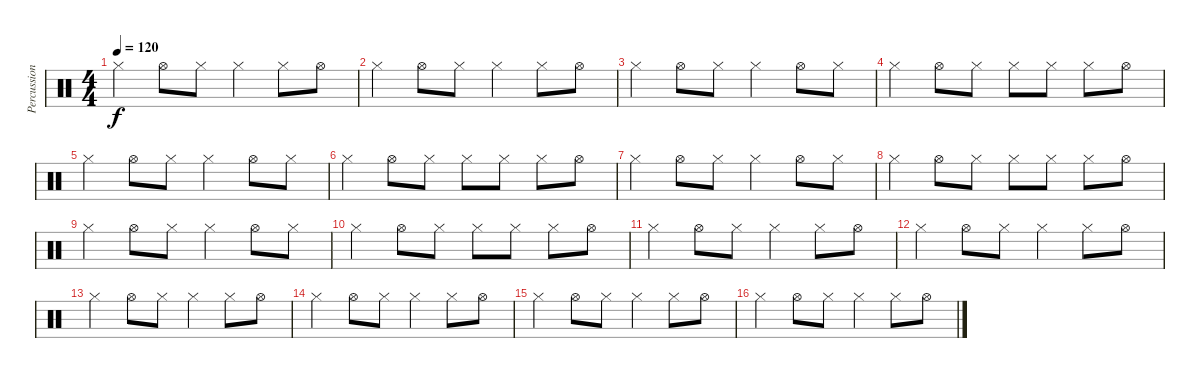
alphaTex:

\track ("Percussion" "Percussion") {instrument percussion}
\staff {score}
\articulation defaults
\ts (4 4)
\tempo 120
\clef neutral
\ks aminor "Hi-Hat (closed)".4{dy f} "Hi-Hat (open)".8 "Hi-Hat (closed)".8 "Hi-Hat (closed)".4 "Hi-Hat (closed)".8 "Hi-Hat (open)".8
|
"Hi-Hat (closed)".4 "Hi-Hat (open)".8 "Hi-Hat (closed)".8 "Hi-Hat (closed)".4 "Hi-Hat (closed)".8 "Hi-Hat (open)".8 |
"Hi-Hat (closed)".4 "Hi-Hat (open)".8 "Hi-Hat (closed)".8 "Hi-Hat (closed)".4 "Hi-Hat (open)".8 "Hi-Hat (closed)".8 |
"Hi-Hat (closed)".4 "Hi-Hat (open)".8 "Hi-Hat (closed)".8 "Hi-Hat (closed)".8 "Hi-Hat (closed)".8 "Hi-Hat (closed)".8 "Hi-Hat (open)".8 |
"Hi-Hat (closed)".4 "Hi-Hat (open)".8 "Hi-Hat (closed)".8 "Hi-Hat (closed)".4 "Hi-Hat (open)".8 "Hi-Hat (closed)".8 |
"Hi-Hat (closed)".4 "Hi-Hat (open)".8 "Hi-Hat (closed)".8 "Hi-Hat (closed)".8 "Hi-Hat (closed)".8 "Hi-Hat (closed)".8 "Hi-Hat (open)".8 |
"Hi-Hat (closed)".4 "Hi-Hat (open)".8 "Hi-Hat (closed)".8 "Hi-Hat (closed)".4 "Hi-Hat (open)".8 "Hi-Hat (closed)".8 |
"Hi-Hat (closed)".4 "Hi-Hat (open)".8 "Hi-Hat (closed)".8 "Hi-Hat (closed)".8 "Hi-Hat (closed)".8 "Hi-Hat (closed)".8 "Hi-Hat (open)".8 |
"Hi-Hat (closed)".4 "Hi-Hat (open)".8 "Hi-Hat (closed)".8 "Hi-Hat (closed)".4 "Hi-Hat (open)".8 "Hi-Hat (closed)".8 |
"Hi-Hat (closed)".4 "Hi-Hat (open)".8 "Hi-Hat (closed)".8 "Hi-Hat (closed)".8 "Hi-Hat (closed)".8 "Hi-Hat (closed)".8 "Hi-Hat (open)".8 |
"Hi-Hat (closed)".4 "Hi-Hat (open)".8 "Hi-Hat (closed)".8 "Hi-Hat (closed)".4 "Hi-Hat (closed)".8 "Hi-Hat (open)".8 |
"Hi-Hat (closed)".4 "Hi-Hat (open)".8 "Hi-Hat (closed)".8 "Hi-Hat (closed)".4 "Hi-Hat (closed)".8 "Hi-Hat (open)".8 |
"Hi-Hat (closed)".4 "Hi-Hat (open)".8 "Hi-Hat (closed)".8 "Hi-Hat (closed)".4 "Hi-Hat (closed)".8 "Hi-Hat (open)".8 |
"Hi-Hat (closed)".4 "Hi-Hat (open)".8 "Hi-Hat (closed)".8 "Hi-Hat (closed)".4 "Hi-Hat (closed)".8 "Hi-Hat (open)".8 |
"Hi-Hat (closed)".4 "Hi-Hat (open)".8 "Hi-Hat (closed)".8 "Hi-Hat (closed)".4 "Hi-Hat (closed)".8 "Hi-Hat (open)".8 |
"Hi-Hat (closed)".4 "Hi-Hat (open)".8 "Hi-Hat (closed)".8 "Hi-Hat (closed)".4 "Hi-Hat (closed)".8 "Hi-Hat (open)".8
